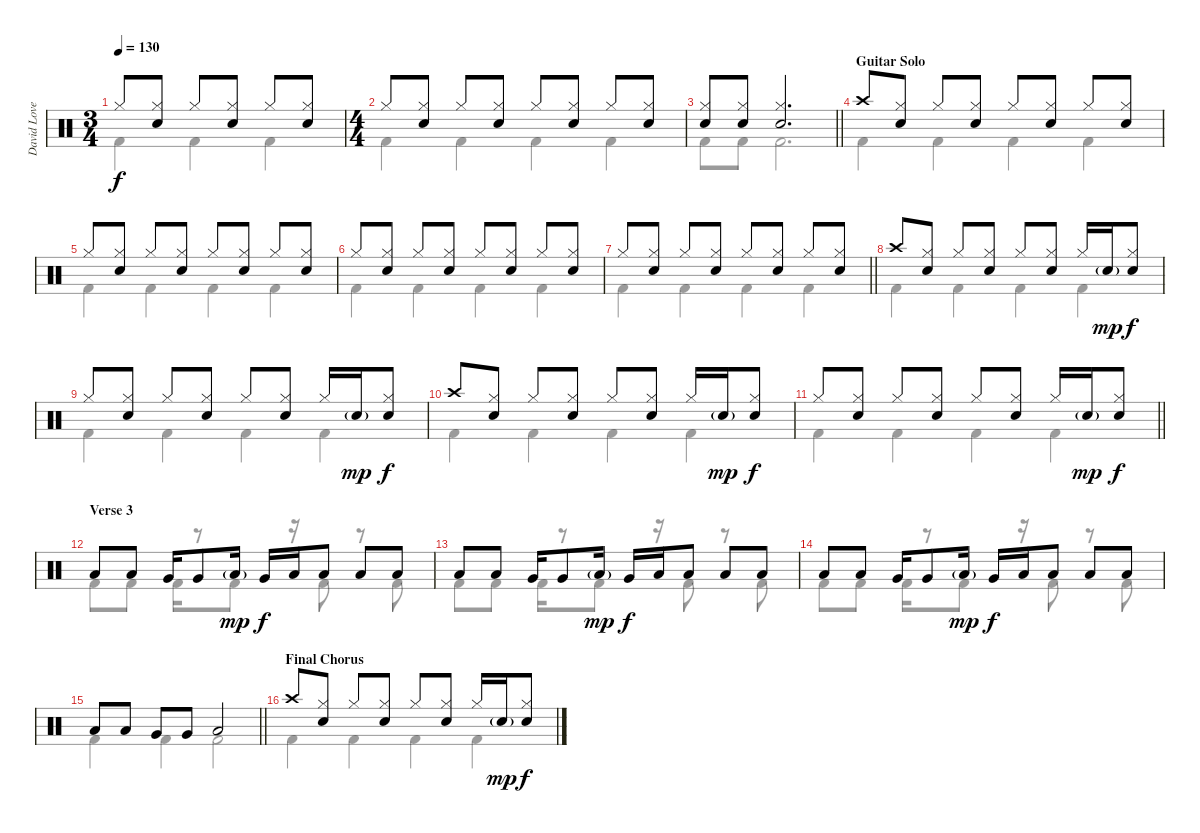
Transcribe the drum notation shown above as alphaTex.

\track ("David Lovering" "David Love") {instrument percussion}
\staff {score}
\articulation defaults
\voice
\ts (3 4)
\tempo 130
\clef neutral
\ks c "Hi-Hat (closed)".8{dy f}
("Hi-Hat (closed)" "Snare (hit) 2").8 "Hi-Hat (closed)".8 ("Hi-Hat (closed)" "Snare (hit) 2").8 "Hi-Hat (closed)".8 ("Hi-Hat (closed)" "Snare (hit) 2").8 |
\ts (4 4)
"Hi-Hat (closed)".8 ("Hi-Hat (closed)" "Snare (hit) 2").8 "Hi-Hat (closed)".8 ("Hi-Hat (closed)" "Snare (hit) 2").8 "Hi-Hat (closed)".8 ("Hi-Hat (closed)" "Snare (hit) 2").8 "Hi-Hat (closed)".8 ("Hi-Hat (closed)" "Snare (hit) 2").8 |
\barLineRight lightlight
("Hi-Hat (closed)" "Snare (hit) 2").8 ("Hi-Hat (closed)" "Snare (hit) 2").8 ("Hi-Hat (closed)" "Snare (hit) 2").2{d} |
\section ("" "Guitar Solo")
"Crash high (hit)".8 ("Hi-Hat (closed)" "Snare (hit) 2").8 "Hi-Hat (closed)".8 ("Hi-Hat (closed)" "Snare (hit) 2").8 "Hi-Hat (closed)".8 ("Hi-Hat (closed)" "Snare (hit) 2").8 "Hi-Hat (closed)".8 ("Hi-Hat (closed)" "Snare (hit) 2").8 |
"Hi-Hat (closed)".8 ("Hi-Hat (closed)" "Snare (hit) 2").8 "Hi-Hat (closed)".8 ("Hi-Hat (closed)" "Snare (hit) 2").8 "Hi-Hat (closed)".8 ("Hi-Hat (closed)" "Snare (hit) 2").8 "Hi-Hat (closed)".8 ("Hi-Hat (closed)" "Snare (hit) 2").8 |
"Hi-Hat (closed)".8 ("Hi-Hat (closed)" "Snare (hit) 2").8 "Hi-Hat (closed)".8 ("Hi-Hat (closed)" "Snare (hit) 2").8 "Hi-Hat (closed)".8 ("Hi-Hat (closed)" "Snare (hit) 2").8 "Hi-Hat (closed)".8 ("Hi-Hat (closed)" "Snare (hit) 2").8 |
\barLineRight lightlight "Hi-Hat (closed)".8
("Hi-Hat (closed)" "Snare (hit) 2").8 "Hi-Hat (closed)".8 ("Hi-Hat (closed)" "Snare (hit) 2").8 "Hi-Hat (closed)".8 ("Hi-Hat (closed)" "Snare (hit) 2").8 "Hi-Hat (closed)".8 ("Hi-Hat (closed)" "Snare (hit) 2").8 |
\section ("" "")
"Crash high (hit)".8 ("Hi-Hat (closed)" "Snare (hit) 2").8 "Hi-Hat (closed)".8 ("Hi-Hat (closed)" "Snare (hit) 2").8 "Hi-Hat (closed)".8 ("Hi-Hat (closed)" "Snare (hit) 2").8 "Hi-Hat (closed)".16 "Snare (hit) 2"{g}.16{dy mp} ("Hi-Hat (closed)" "Snare (hit) 2").8{dy f} |
"Hi-Hat (closed)".8 ("Hi-Hat (closed)" "Snare (hit) 2").8 "Hi-Hat (closed)".8 ("Hi-Hat (closed)" "Snare (hit) 2").8 "Hi-Hat (closed)".8 ("Hi-Hat (closed)" "Snare (hit) 2").8 "Hi-Hat (closed)".16 "Snare (hit) 2"{g}.16{dy mp} ("Hi-Hat (closed)" "Snare (hit) 2").8{dy f} |
"Crash high (hit)".8 ("Hi-Hat (closed)" "Snare (hit) 2").8 "Hi-Hat (closed)".8 ("Hi-Hat (closed)" "Snare (hit) 2").8 "Hi-Hat (closed)".8 ("Hi-Hat (closed)" "Snare (hit) 2").8 "Hi-Hat (closed)".16 "Snare (hit) 2"{g}.16{dy mp} ("Hi-Hat (closed)" "Snare (hit) 2").8{dy f} |
\barLineRight lightlight "Hi-Hat (closed)".8
("Hi-Hat (closed)" "Snare (hit) 2").8 "Hi-Hat (closed)".8 ("Hi-Hat (closed)" "Snare (hit) 2").8 "Hi-Hat (closed)".8 ("Hi-Hat (closed)" "Snare (hit) 2").8 "Hi-Hat (closed)".16 "Snare (hit) 2"{g}.16{dy mp} ("Hi-Hat (closed)" "Snare (hit) 2").8{dy f} |
\section ("" "Verse 3")
"Low Tom (hit)".8 "Low Tom (hit)".8 "Very Low Tom (hit)".16 "Very Low Tom (hit)".8 "Low Tom (hit)"{g}.16{dy mp} "Very Low Tom (hit)".16{dy f} "Low Tom (hit)".16 "Low Tom (hit)".8 "Low Tom (hit)".8 "Low Tom (hit)".8 |
"Low Tom (hit)".8 "Low Tom (hit)".8 "Very Low Tom (hit)".16 "Very Low Tom (hit)".8 "Low Tom (hit)"{g}.16{dy mp} "Very Low Tom (hit)".16{dy f} "Low Tom (hit)".16 "Low Tom (hit)".8 "Low Tom (hit)".8 "Low Tom (hit)".8 |
"Low Tom (hit)".8 "Low Tom (hit)".8 "Very Low Tom (hit)".16 "Very Low Tom (hit)".8 "Low Tom (hit)"{g}.16{dy mp} "Very Low Tom (hit)".16{dy f} "Low Tom (hit)".16 "Low Tom (hit)".8 "Low Tom (hit)".8 "Low Tom (hit)".8 |
\barLineRight lightlight "Low Tom (hit)".8 "Low Tom (hit)".8 "Very Low Tom (hit)".8 "Very Low Tom (hit)".8 "Low Tom (hit)".2
|
\section ("" "Final Chorus")
"Crash high (hit)".8 ("Hi-Hat (closed)" "Snare (hit) 2").8 "Hi-Hat (closed)".8 ("Hi-Hat (closed)" "Snare (hit) 2").8 "Hi-Hat (closed)".8 ("Hi-Hat (closed)" "Snare (hit) 2").8 "Hi-Hat (closed)".16 "Snare (hit) 2"{g}.16{dy mp} ("Hi-Hat (closed)" "Snare (hit) 2").8{dy f}
\voice
\clef neutral
\ottava regular
\simile none
\ks c "Kick (hit) 2".4{dy f} "Kick (hit) 2".4 "Kick (hit) 2".4
|
"Kick (hit) 2".4 "Kick (hit) 2".4 "Kick (hit) 2".4 "Kick (hit) 2".4 |
\barLineRight lightlight "Kick (hit) 2".8 "Kick (hit) 2".8 "Kick (hit) 2".2{d}
|
"Kick (hit) 2".4 "Kick (hit) 2".4 "Kick (hit) 2".4 "Kick (hit) 2".4 |
"Kick (hit) 2".4 "Kick (hit) 2".4 "Kick (hit) 2".4 "Kick (hit) 2".4 |
"Kick (hit) 2".4 "Kick (hit) 2".4 "Kick (hit) 2".4 "Kick (hit) 2".4 |
\barLineRight lightlight "Kick (hit) 2".4 "Kick (hit) 2".4 "Kick (hit) 2".4 "Kick (hit) 2".4
|
"Kick (hit) 2".4 "Kick (hit) 2".4 "Kick (hit) 2".4 "Kick (hit) 2".4 |
"Kick (hit) 2".4 "Kick (hit) 2".4 "Kick (hit) 2".4 "Kick (hit) 2".4 |
"Kick (hit) 2".4 "Kick (hit) 2".4 "Kick (hit) 2".4 "Kick (hit) 2".4 |
\barLineRight lightlight "Kick (hit) 2".4 "Kick (hit) 2".4 "Kick (hit) 2".4 "Kick (hit) 2".4
|
"Kick (hit) 2".8 "Kick (hit) 2".8 "Kick (hit) 2".16 r.8 "Kick (hit) 2".8 r.16 "Kick (hit) 2".8 r.8 "Kick (hit) 2".8 |
"Kick (hit) 2".8 "Kick (hit) 2".8 "Kick (hit) 2".16 r.8 "Kick (hit) 2".8 r.16 "Kick (hit) 2".8 r.8 "Kick (hit) 2".8 |
"Kick (hit) 2".8 "Kick (hit) 2".8 "Kick (hit) 2".16 r.8 "Kick (hit) 2".8 r.16 "Kick (hit) 2".8 r.8 "Kick (hit) 2".8 |
\barLineRight lightlight "Kick (hit) 2".4 "Kick (hit) 2".4 "Kick (hit) 2".2
|
"Kick (hit) 2".4 "Kick (hit) 2".4 "Kick (hit) 2".4 "Kick (hit) 2".4
